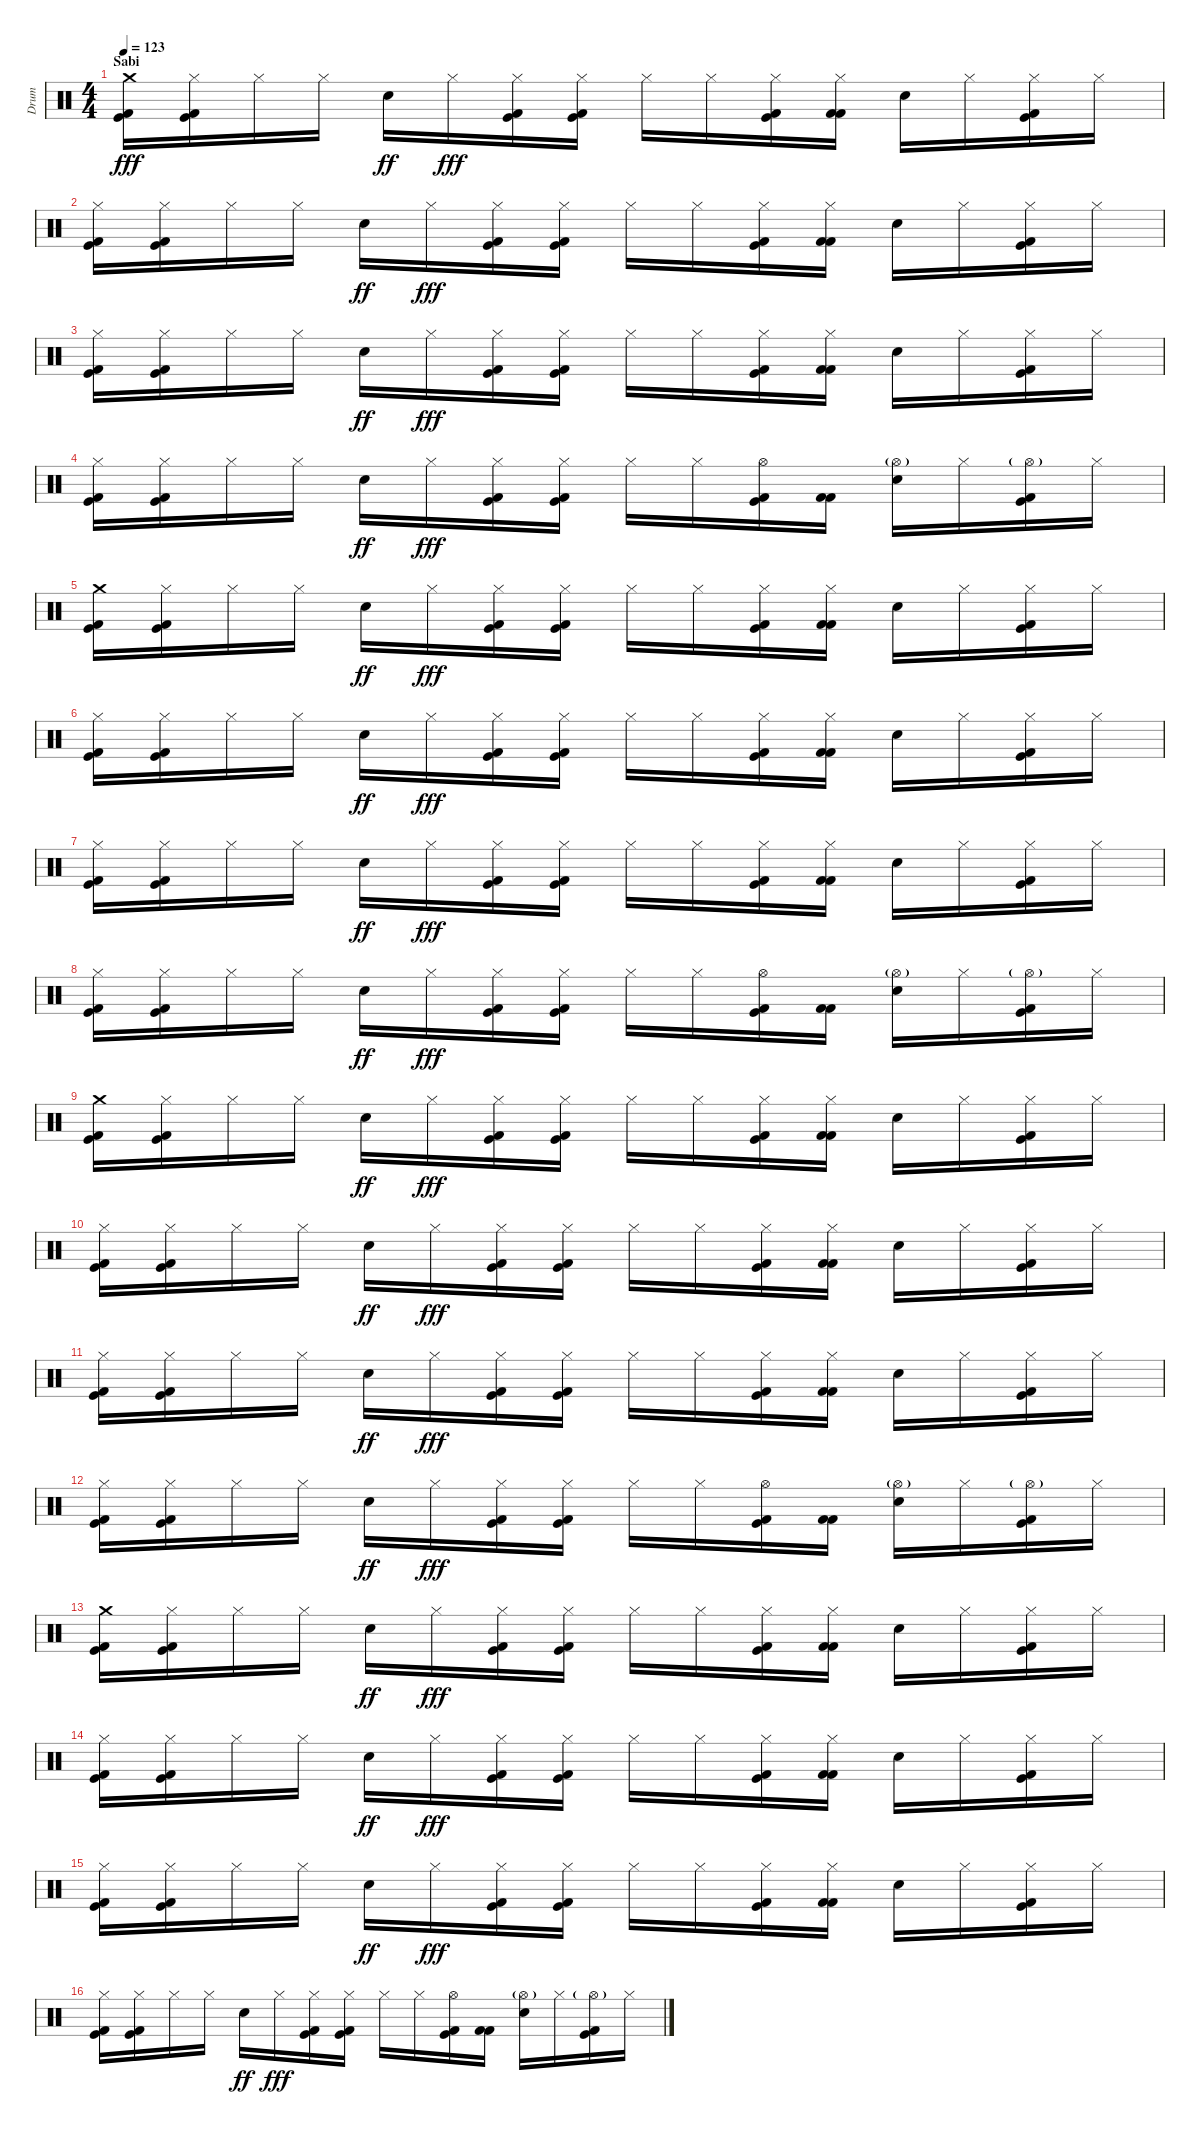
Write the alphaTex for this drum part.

\track ("Drum" "Drum") {instrument percussion}
\staff {score}
\articulation defaults
\ts (4 4)
\section ("" "Sabi")
\tempo 123
\clef neutral
\ks c
("Crash medium (hit)" "Kick (hit)" "Kick (hit) 2").16{dy fff} ("Hi-Hat (closed)" "Kick (hit)" "Kick (hit) 2").16 "Hi-Hat (closed)".16 "Hi-Hat (closed)".16 "Electric Snare (hit)".16{dy ff} "Hi-Hat (closed)".16{dy fff} ("Hi-Hat (closed)" "Kick (hit)" "Kick (hit) 2").16 ("Hi-Hat (closed)" "Kick (hit)" "Kick (hit) 2").16 "Hi-Hat (closed)".16 "Hi-Hat (closed)".16 ("Hi-Hat (closed)" "Kick (hit)" "Kick (hit) 2").16 ("Hi-Hat (closed)" "Kick (hit) 2" "Kick (hit) 2").16 "Electric Snare (hit)".16 "Hi-Hat (closed)".16 ("Hi-Hat (closed)" "Kick (hit)" "Kick (hit) 2").16 "Hi-Hat (closed)".16 |
("Hi-Hat (closed)" "Kick (hit)" "Kick (hit) 2").16 ("Hi-Hat (closed)" "Kick (hit)" "Kick (hit) 2").16 "Hi-Hat (closed)".16 "Hi-Hat (closed)".16 "Electric Snare (hit)".16{dy ff} "Hi-Hat (closed)".16{dy fff} ("Hi-Hat (closed)" "Kick (hit)" "Kick (hit) 2").16 ("Hi-Hat (closed)" "Kick (hit)" "Kick (hit) 2").16 "Hi-Hat (closed)".16 "Hi-Hat (closed)".16 ("Hi-Hat (closed)" "Kick (hit)" "Kick (hit) 2").16 ("Hi-Hat (closed)" "Kick (hit) 2" "Kick (hit) 2").16 "Electric Snare (hit)".16 "Hi-Hat (closed)".16 ("Hi-Hat (closed)" "Kick (hit)" "Kick (hit) 2").16 "Hi-Hat (closed)".16 |
("Hi-Hat (closed)" "Kick (hit)" "Kick (hit) 2").16 ("Hi-Hat (closed)" "Kick (hit)" "Kick (hit) 2").16 "Hi-Hat (closed)".16 "Hi-Hat (closed)".16 "Electric Snare (hit)".16{dy ff} "Hi-Hat (closed)".16{dy fff} ("Hi-Hat (closed)" "Kick (hit)" "Kick (hit) 2").16 ("Hi-Hat (closed)" "Kick (hit)" "Kick (hit) 2").16 "Hi-Hat (closed)".16 "Hi-Hat (closed)".16 ("Hi-Hat (closed)" "Kick (hit)" "Kick (hit) 2").16 ("Hi-Hat (closed)" "Kick (hit) 2" "Kick (hit) 2").16 "Electric Snare (hit)".16 "Hi-Hat (closed)".16 ("Hi-Hat (closed)" "Kick (hit)" "Kick (hit) 2").16 "Hi-Hat (closed)".16 |
("Hi-Hat (closed)" "Kick (hit)" "Kick (hit) 2").16 ("Hi-Hat (closed)" "Kick (hit)" "Kick (hit) 2").16 "Hi-Hat (closed)".16 "Hi-Hat (closed)".16 "Electric Snare (hit)".16{dy ff} "Hi-Hat (closed)".16{dy fff} ("Hi-Hat (closed)" "Kick (hit)" "Kick (hit) 2").16 ("Hi-Hat (closed)" "Kick (hit)" "Kick (hit) 2").16 "Hi-Hat (closed)".16 "Hi-Hat (closed)".16 ("Hi-Hat (open)" "Kick (hit)" "Kick (hit) 2").16 ("Kick (hit) 2" "Kick (hit) 2").16 ("Hi-Hat (open)"{g} "Electric Snare (hit)").16 "Hi-Hat (closed)".16 ("Hi-Hat (open)"{g} "Kick (hit)" "Kick (hit) 2").16 "Hi-Hat (closed)".16 |
("Crash medium (hit)" "Kick (hit)" "Kick (hit) 2").16 ("Hi-Hat (closed)" "Kick (hit)" "Kick (hit) 2").16 "Hi-Hat (closed)".16 "Hi-Hat (closed)".16 "Electric Snare (hit)".16{dy ff} "Hi-Hat (closed)".16{dy fff} ("Hi-Hat (closed)" "Kick (hit)" "Kick (hit) 2").16 ("Hi-Hat (closed)" "Kick (hit)" "Kick (hit) 2").16 "Hi-Hat (closed)".16 "Hi-Hat (closed)".16 ("Hi-Hat (closed)" "Kick (hit)" "Kick (hit) 2").16 ("Hi-Hat (closed)" "Kick (hit) 2" "Kick (hit) 2").16 "Electric Snare (hit)".16 "Hi-Hat (closed)".16 ("Hi-Hat (closed)" "Kick (hit)" "Kick (hit) 2").16 "Hi-Hat (closed)".16 |
("Hi-Hat (closed)" "Kick (hit)" "Kick (hit) 2").16 ("Hi-Hat (closed)" "Kick (hit)" "Kick (hit) 2").16 "Hi-Hat (closed)".16 "Hi-Hat (closed)".16 "Electric Snare (hit)".16{dy ff} "Hi-Hat (closed)".16{dy fff} ("Hi-Hat (closed)" "Kick (hit)" "Kick (hit) 2").16 ("Hi-Hat (closed)" "Kick (hit)" "Kick (hit) 2").16 "Hi-Hat (closed)".16 "Hi-Hat (closed)".16 ("Hi-Hat (closed)" "Kick (hit)" "Kick (hit) 2").16 ("Hi-Hat (closed)" "Kick (hit) 2" "Kick (hit) 2").16 "Electric Snare (hit)".16 "Hi-Hat (closed)".16 ("Hi-Hat (closed)" "Kick (hit)" "Kick (hit) 2").16 "Hi-Hat (closed)".16 |
("Hi-Hat (closed)" "Kick (hit)" "Kick (hit) 2").16 ("Hi-Hat (closed)" "Kick (hit)" "Kick (hit) 2").16 "Hi-Hat (closed)".16 "Hi-Hat (closed)".16 "Electric Snare (hit)".16{dy ff} "Hi-Hat (closed)".16{dy fff} ("Hi-Hat (closed)" "Kick (hit)" "Kick (hit) 2").16 ("Hi-Hat (closed)" "Kick (hit)" "Kick (hit) 2").16 "Hi-Hat (closed)".16 "Hi-Hat (closed)".16 ("Hi-Hat (closed)" "Kick (hit)" "Kick (hit) 2").16 ("Hi-Hat (closed)" "Kick (hit) 2" "Kick (hit) 2").16 "Electric Snare (hit)".16 "Hi-Hat (closed)".16 ("Hi-Hat (closed)" "Kick (hit)" "Kick (hit) 2").16 "Hi-Hat (closed)".16 |
("Hi-Hat (closed)" "Kick (hit)" "Kick (hit) 2").16 ("Hi-Hat (closed)" "Kick (hit)" "Kick (hit) 2").16 "Hi-Hat (closed)".16 "Hi-Hat (closed)".16 "Electric Snare (hit)".16{dy ff} "Hi-Hat (closed)".16{dy fff} ("Hi-Hat (closed)" "Kick (hit)" "Kick (hit) 2").16 ("Hi-Hat (closed)" "Kick (hit)" "Kick (hit) 2").16 "Hi-Hat (closed)".16 "Hi-Hat (closed)".16 ("Hi-Hat (open)" "Kick (hit)" "Kick (hit) 2").16 ("Kick (hit) 2" "Kick (hit) 2").16 ("Hi-Hat (open)"{g} "Electric Snare (hit)").16 "Hi-Hat (closed)".16 ("Hi-Hat (open)"{g} "Kick (hit)" "Kick (hit) 2").16 "Hi-Hat (closed)".16 |
("Crash medium (hit)" "Kick (hit)" "Kick (hit) 2").16 ("Hi-Hat (closed)" "Kick (hit)" "Kick (hit) 2").16 "Hi-Hat (closed)".16 "Hi-Hat (closed)".16 "Electric Snare (hit)".16{dy ff} "Hi-Hat (closed)".16{dy fff} ("Hi-Hat (closed)" "Kick (hit)" "Kick (hit) 2").16 ("Hi-Hat (closed)" "Kick (hit)" "Kick (hit) 2").16 "Hi-Hat (closed)".16 "Hi-Hat (closed)".16 ("Hi-Hat (closed)" "Kick (hit)" "Kick (hit) 2").16 ("Hi-Hat (closed)" "Kick (hit) 2" "Kick (hit) 2").16 "Electric Snare (hit)".16 "Hi-Hat (closed)".16 ("Hi-Hat (closed)" "Kick (hit)" "Kick (hit) 2").16 "Hi-Hat (closed)".16 |
("Hi-Hat (closed)" "Kick (hit)" "Kick (hit) 2").16 ("Hi-Hat (closed)" "Kick (hit)" "Kick (hit) 2").16 "Hi-Hat (closed)".16 "Hi-Hat (closed)".16 "Electric Snare (hit)".16{dy ff} "Hi-Hat (closed)".16{dy fff} ("Hi-Hat (closed)" "Kick (hit)" "Kick (hit) 2").16 ("Hi-Hat (closed)" "Kick (hit)" "Kick (hit) 2").16 "Hi-Hat (closed)".16 "Hi-Hat (closed)".16 ("Hi-Hat (closed)" "Kick (hit)" "Kick (hit) 2").16 ("Hi-Hat (closed)" "Kick (hit) 2" "Kick (hit) 2").16 "Electric Snare (hit)".16 "Hi-Hat (closed)".16 ("Hi-Hat (closed)" "Kick (hit)" "Kick (hit) 2").16 "Hi-Hat (closed)".16 |
("Hi-Hat (closed)" "Kick (hit)" "Kick (hit) 2").16 ("Hi-Hat (closed)" "Kick (hit)" "Kick (hit) 2").16 "Hi-Hat (closed)".16 "Hi-Hat (closed)".16 "Electric Snare (hit)".16{dy ff} "Hi-Hat (closed)".16{dy fff} ("Hi-Hat (closed)" "Kick (hit)" "Kick (hit) 2").16 ("Hi-Hat (closed)" "Kick (hit)" "Kick (hit) 2").16 "Hi-Hat (closed)".16 "Hi-Hat (closed)".16 ("Hi-Hat (closed)" "Kick (hit)" "Kick (hit) 2").16 ("Hi-Hat (closed)" "Kick (hit) 2" "Kick (hit) 2").16 "Electric Snare (hit)".16 "Hi-Hat (closed)".16 ("Hi-Hat (closed)" "Kick (hit)" "Kick (hit) 2").16 "Hi-Hat (closed)".16 |
("Hi-Hat (closed)" "Kick (hit)" "Kick (hit) 2").16 ("Hi-Hat (closed)" "Kick (hit)" "Kick (hit) 2").16 "Hi-Hat (closed)".16 "Hi-Hat (closed)".16 "Electric Snare (hit)".16{dy ff} "Hi-Hat (closed)".16{dy fff} ("Hi-Hat (closed)" "Kick (hit)" "Kick (hit) 2").16 ("Hi-Hat (closed)" "Kick (hit)" "Kick (hit) 2").16 "Hi-Hat (closed)".16 "Hi-Hat (closed)".16 ("Hi-Hat (open)" "Kick (hit)" "Kick (hit) 2").16 ("Kick (hit) 2" "Kick (hit) 2").16 ("Hi-Hat (open)"{g} "Electric Snare (hit)").16 "Hi-Hat (closed)".16 ("Hi-Hat (open)"{g} "Kick (hit)" "Kick (hit) 2").16 "Hi-Hat (closed)".16 |
("Crash medium (hit)" "Kick (hit)" "Kick (hit) 2").16 ("Hi-Hat (closed)" "Kick (hit)" "Kick (hit) 2").16 "Hi-Hat (closed)".16 "Hi-Hat (closed)".16 "Electric Snare (hit)".16{dy ff} "Hi-Hat (closed)".16{dy fff} ("Hi-Hat (closed)" "Kick (hit)" "Kick (hit) 2").16 ("Hi-Hat (closed)" "Kick (hit)" "Kick (hit) 2").16 "Hi-Hat (closed)".16 "Hi-Hat (closed)".16 ("Hi-Hat (closed)" "Kick (hit)" "Kick (hit) 2").16 ("Hi-Hat (closed)" "Kick (hit) 2" "Kick (hit) 2").16 "Electric Snare (hit)".16 "Hi-Hat (closed)".16 ("Hi-Hat (closed)" "Kick (hit)" "Kick (hit) 2").16 "Hi-Hat (closed)".16 |
("Hi-Hat (closed)" "Kick (hit)" "Kick (hit) 2").16 ("Hi-Hat (closed)" "Kick (hit)" "Kick (hit) 2").16 "Hi-Hat (closed)".16 "Hi-Hat (closed)".16 "Electric Snare (hit)".16{dy ff} "Hi-Hat (closed)".16{dy fff} ("Hi-Hat (closed)" "Kick (hit)" "Kick (hit) 2").16 ("Hi-Hat (closed)" "Kick (hit)" "Kick (hit) 2").16 "Hi-Hat (closed)".16 "Hi-Hat (closed)".16 ("Hi-Hat (closed)" "Kick (hit)" "Kick (hit) 2").16 ("Hi-Hat (closed)" "Kick (hit) 2" "Kick (hit) 2").16 "Electric Snare (hit)".16 "Hi-Hat (closed)".16 ("Hi-Hat (closed)" "Kick (hit)" "Kick (hit) 2").16 "Hi-Hat (closed)".16 |
("Hi-Hat (closed)" "Kick (hit)" "Kick (hit) 2").16 ("Hi-Hat (closed)" "Kick (hit)" "Kick (hit) 2").16 "Hi-Hat (closed)".16 "Hi-Hat (closed)".16 "Electric Snare (hit)".16{dy ff} "Hi-Hat (closed)".16{dy fff} ("Hi-Hat (closed)" "Kick (hit)" "Kick (hit) 2").16 ("Hi-Hat (closed)" "Kick (hit)" "Kick (hit) 2").16 "Hi-Hat (closed)".16 "Hi-Hat (closed)".16 ("Hi-Hat (closed)" "Kick (hit)" "Kick (hit) 2").16 ("Hi-Hat (closed)" "Kick (hit) 2" "Kick (hit) 2").16 "Electric Snare (hit)".16 "Hi-Hat (closed)".16 ("Hi-Hat (closed)" "Kick (hit)" "Kick (hit) 2").16 "Hi-Hat (closed)".16 |
("Hi-Hat (closed)" "Kick (hit)" "Kick (hit) 2").16 ("Hi-Hat (closed)" "Kick (hit)" "Kick (hit) 2").16 "Hi-Hat (closed)".16 "Hi-Hat (closed)".16 "Electric Snare (hit)".16{dy ff} "Hi-Hat (closed)".16{dy fff} ("Hi-Hat (closed)" "Kick (hit)" "Kick (hit) 2").16 ("Hi-Hat (closed)" "Kick (hit)" "Kick (hit) 2").16 "Hi-Hat (closed)".16 "Hi-Hat (closed)".16 ("Hi-Hat (open)" "Kick (hit)" "Kick (hit) 2").16 ("Kick (hit) 2" "Kick (hit) 2").16 ("Hi-Hat (open)"{g} "Electric Snare (hit)").16 "Hi-Hat (closed)".16 ("Hi-Hat (open)"{g} "Kick (hit)" "Kick (hit) 2").16 "Hi-Hat (closed)".16
